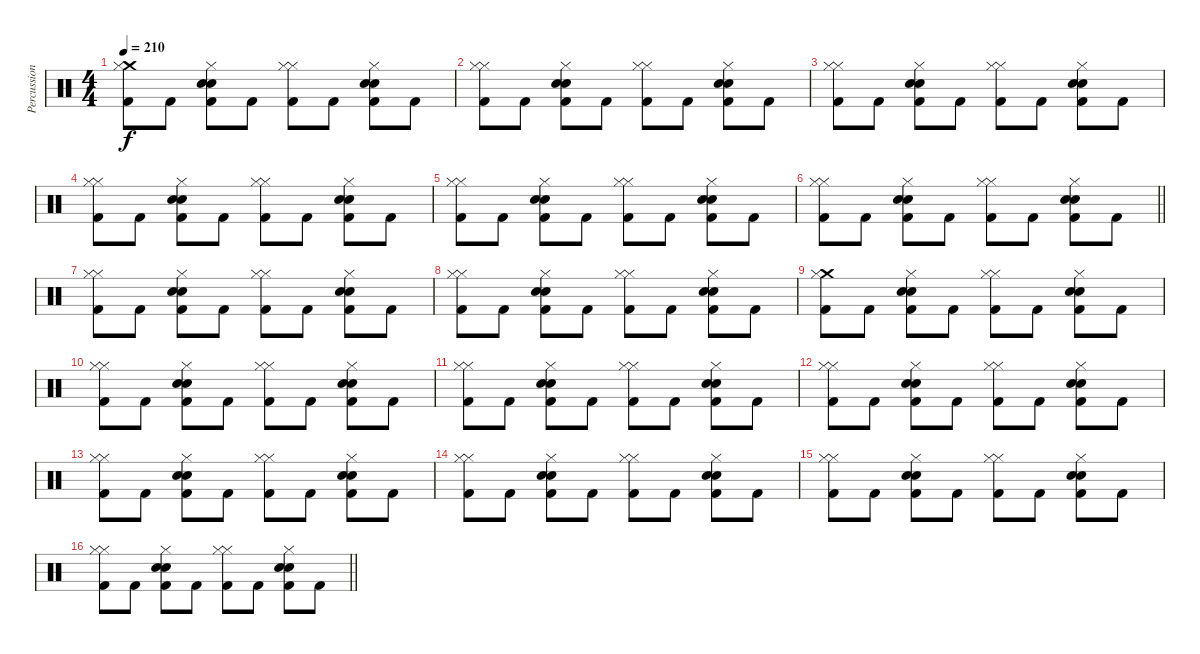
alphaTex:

\track ("Percussion" "Percussion") {instrument percussion}
\staff {score}
\articulation defaults
\ts (4 4)
\tempo 210
\clef neutral
\ks c
("Crash medium (hit)" "Hi-Hat (closed)" "Kick (hit) 2").8{dy f} "Kick (hit) 2".8 ("Hi-Hat (closed)" "Snare (hit) 2" "Electric Snare (hit)" "Kick (hit) 2").8 "Kick (hit) 2".8 ("Hi-Hat (closed)" "Hi-Hat (closed)" "Kick (hit) 2").8 "Kick (hit) 2".8 ("Hi-Hat (closed)" "Snare (hit) 2" "Electric Snare (hit)" "Kick (hit) 2").8 "Kick (hit) 2".8 |
("Hi-Hat (closed)" "Hi-Hat (closed)" "Kick (hit) 2").8 "Kick (hit) 2".8 ("Hi-Hat (closed)" "Snare (hit) 2" "Electric Snare (hit)" "Kick (hit) 2").8 "Kick (hit) 2".8 ("Hi-Hat (closed)" "Hi-Hat (closed)" "Kick (hit) 2").8 "Kick (hit) 2".8 ("Hi-Hat (closed)" "Snare (hit) 2" "Electric Snare (hit)" "Kick (hit) 2").8 "Kick (hit) 2".8 |
("Hi-Hat (closed)" "Hi-Hat (closed)" "Kick (hit) 2").8 "Kick (hit) 2".8 ("Hi-Hat (closed)" "Snare (hit) 2" "Electric Snare (hit)" "Kick (hit) 2").8 "Kick (hit) 2".8 ("Hi-Hat (closed)" "Hi-Hat (closed)" "Kick (hit) 2").8 "Kick (hit) 2".8 ("Hi-Hat (closed)" "Snare (hit) 2" "Electric Snare (hit)" "Kick (hit) 2").8 "Kick (hit) 2".8 |
("Hi-Hat (closed)" "Hi-Hat (closed)" "Kick (hit) 2").8 "Kick (hit) 2".8 ("Hi-Hat (closed)" "Snare (hit) 2" "Electric Snare (hit)" "Kick (hit) 2").8 "Kick (hit) 2".8 ("Hi-Hat (closed)" "Hi-Hat (closed)" "Kick (hit) 2").8 "Kick (hit) 2".8 ("Hi-Hat (closed)" "Snare (hit) 2" "Electric Snare (hit)" "Kick (hit) 2").8 "Kick (hit) 2".8 |
("Hi-Hat (closed)" "Hi-Hat (closed)" "Kick (hit) 2").8 "Kick (hit) 2".8 ("Hi-Hat (closed)" "Snare (hit) 2" "Electric Snare (hit)" "Kick (hit) 2").8 "Kick (hit) 2".8 ("Hi-Hat (closed)" "Hi-Hat (closed)" "Kick (hit) 2").8 "Kick (hit) 2".8 ("Hi-Hat (closed)" "Snare (hit) 2" "Electric Snare (hit)" "Kick (hit) 2").8 "Kick (hit) 2".8 |
\barLineRight lightlight
("Hi-Hat (closed)" "Hi-Hat (closed)" "Kick (hit) 2").8 "Kick (hit) 2".8 ("Hi-Hat (closed)" "Snare (hit) 2" "Electric Snare (hit)" "Kick (hit) 2").8 "Kick (hit) 2".8 ("Hi-Hat (closed)" "Hi-Hat (closed)" "Kick (hit) 2").8 "Kick (hit) 2".8 ("Hi-Hat (closed)" "Snare (hit) 2" "Electric Snare (hit)" "Kick (hit) 2").8 "Kick (hit) 2".8 |
("Hi-Hat (closed)" "Hi-Hat (closed)" "Kick (hit) 2").8 "Kick (hit) 2".8 ("Hi-Hat (closed)" "Snare (hit) 2" "Electric Snare (hit)" "Kick (hit) 2").8 "Kick (hit) 2".8 ("Hi-Hat (closed)" "Hi-Hat (closed)" "Kick (hit) 2").8 "Kick (hit) 2".8 ("Hi-Hat (closed)" "Snare (hit) 2" "Electric Snare (hit)" "Kick (hit) 2").8 "Kick (hit) 2".8 |
("Hi-Hat (closed)" "Hi-Hat (closed)" "Kick (hit) 2").8 "Kick (hit) 2".8 ("Hi-Hat (closed)" "Snare (hit) 2" "Electric Snare (hit)" "Kick (hit) 2").8 "Kick (hit) 2".8 ("Hi-Hat (closed)" "Hi-Hat (closed)" "Kick (hit) 2").8 "Kick (hit) 2".8 ("Hi-Hat (closed)" "Snare (hit) 2" "Electric Snare (hit)" "Kick (hit) 2").8 "Kick (hit) 2".8 |
("Crash medium (hit)" "Hi-Hat (closed)" "Kick (hit) 2").8 "Kick (hit) 2".8 ("Hi-Hat (closed)" "Snare (hit) 2" "Electric Snare (hit)" "Kick (hit) 2").8 "Kick (hit) 2".8 ("Hi-Hat (closed)" "Hi-Hat (closed)" "Kick (hit) 2").8 "Kick (hit) 2".8 ("Hi-Hat (closed)" "Snare (hit) 2" "Electric Snare (hit)" "Kick (hit) 2").8 "Kick (hit) 2".8 |
("Hi-Hat (closed)" "Hi-Hat (closed)" "Kick (hit) 2").8 "Kick (hit) 2".8 ("Hi-Hat (closed)" "Snare (hit) 2" "Electric Snare (hit)" "Kick (hit) 2").8 "Kick (hit) 2".8 ("Hi-Hat (closed)" "Hi-Hat (closed)" "Kick (hit) 2").8 "Kick (hit) 2".8 ("Hi-Hat (closed)" "Snare (hit) 2" "Electric Snare (hit)" "Kick (hit) 2").8 "Kick (hit) 2".8 |
("Hi-Hat (closed)" "Hi-Hat (closed)" "Kick (hit) 2").8 "Kick (hit) 2".8 ("Hi-Hat (closed)" "Snare (hit) 2" "Electric Snare (hit)" "Kick (hit) 2").8 "Kick (hit) 2".8 ("Hi-Hat (closed)" "Hi-Hat (closed)" "Kick (hit) 2").8 "Kick (hit) 2".8 ("Hi-Hat (closed)" "Snare (hit) 2" "Electric Snare (hit)" "Kick (hit) 2").8 "Kick (hit) 2".8 |
("Hi-Hat (closed)" "Hi-Hat (closed)" "Kick (hit) 2").8 "Kick (hit) 2".8 ("Hi-Hat (closed)" "Snare (hit) 2" "Electric Snare (hit)" "Kick (hit) 2").8 "Kick (hit) 2".8 ("Hi-Hat (closed)" "Hi-Hat (closed)" "Kick (hit) 2").8 "Kick (hit) 2".8 ("Hi-Hat (closed)" "Snare (hit) 2" "Electric Snare (hit)" "Kick (hit) 2").8 "Kick (hit) 2".8 |
("Hi-Hat (closed)" "Hi-Hat (closed)" "Kick (hit) 2").8 "Kick (hit) 2".8 ("Hi-Hat (closed)" "Snare (hit) 2" "Electric Snare (hit)" "Kick (hit) 2").8 "Kick (hit) 2".8 ("Hi-Hat (closed)" "Hi-Hat (closed)" "Kick (hit) 2").8 "Kick (hit) 2".8 ("Hi-Hat (closed)" "Snare (hit) 2" "Electric Snare (hit)" "Kick (hit) 2").8 "Kick (hit) 2".8 |
("Hi-Hat (closed)" "Hi-Hat (closed)" "Kick (hit) 2").8 "Kick (hit) 2".8 ("Hi-Hat (closed)" "Snare (hit) 2" "Electric Snare (hit)" "Kick (hit) 2").8 "Kick (hit) 2".8 ("Hi-Hat (closed)" "Hi-Hat (closed)" "Kick (hit) 2").8 "Kick (hit) 2".8 ("Hi-Hat (closed)" "Snare (hit) 2" "Electric Snare (hit)" "Kick (hit) 2").8 "Kick (hit) 2".8 |
("Hi-Hat (closed)" "Hi-Hat (closed)" "Kick (hit) 2").8 "Kick (hit) 2".8 ("Hi-Hat (closed)" "Snare (hit) 2" "Electric Snare (hit)" "Kick (hit) 2").8 "Kick (hit) 2".8 ("Hi-Hat (closed)" "Hi-Hat (closed)" "Kick (hit) 2").8 "Kick (hit) 2".8 ("Hi-Hat (closed)" "Snare (hit) 2" "Electric Snare (hit)" "Kick (hit) 2").8 "Kick (hit) 2".8 |
\barLineRight lightlight
("Hi-Hat (closed)" "Hi-Hat (closed)" "Kick (hit) 2").8 "Kick (hit) 2".8 ("Hi-Hat (closed)" "Snare (hit) 2" "Electric Snare (hit)" "Kick (hit) 2").8 "Kick (hit) 2".8 ("Hi-Hat (closed)" "Hi-Hat (closed)" "Kick (hit) 2").8 "Kick (hit) 2".8 ("Hi-Hat (closed)" "Snare (hit) 2" "Electric Snare (hit)" "Kick (hit) 2").8 "Kick (hit) 2".8
